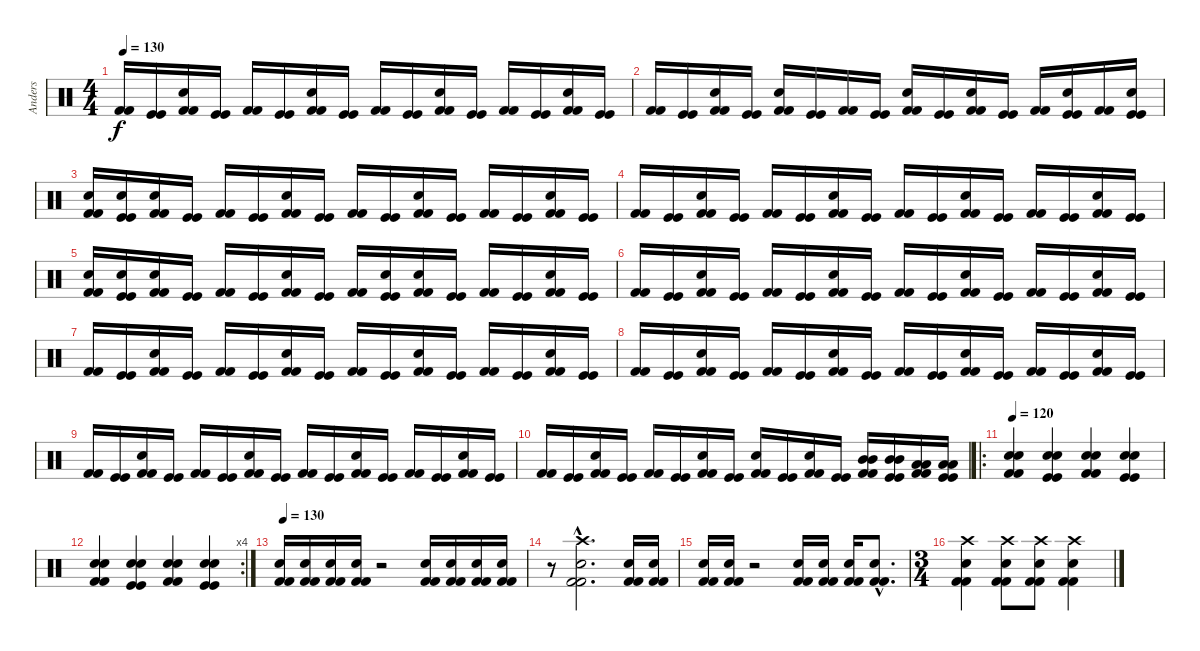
\track ("Anders" "Anders") {instrument percussion}
\staff {score}
\articulation defaults
\ts (4 4)
\tempo 130
\clef neutral
\ks c
("Kick (hit) 2" "Kick (hit) 2").16{dy f} ("Kick (hit)" "Kick (hit)").16 ("Snare (hit) 2" "Kick (hit) 2" "Kick (hit) 2").16 ("Kick (hit)" "Kick (hit)").16 ("Kick (hit) 2" "Kick (hit) 2").16 ("Kick (hit)" "Kick (hit)").16 ("Snare (hit) 2" "Kick (hit) 2" "Kick (hit) 2").16 ("Kick (hit)" "Kick (hit)").16 ("Kick (hit) 2" "Kick (hit) 2").16 ("Kick (hit)" "Kick (hit)").16 ("Snare (hit) 2" "Kick (hit) 2" "Kick (hit) 2").16 ("Kick (hit)" "Kick (hit)").16 ("Kick (hit) 2" "Kick (hit) 2").16 ("Kick (hit)" "Kick (hit)").16 ("Snare (hit) 2" "Kick (hit) 2" "Kick (hit) 2").16 ("Kick (hit)" "Kick (hit)").16 |
("Kick (hit) 2" "Kick (hit) 2").16 ("Kick (hit)" "Kick (hit)").16 ("Snare (hit) 2" "Kick (hit) 2" "Kick (hit) 2").16 ("Kick (hit)" "Kick (hit)").16 ("Snare (hit) 2" "Kick (hit) 2" "Kick (hit) 2").16 ("Kick (hit)" "Kick (hit)").16 ("Kick (hit) 2" "Kick (hit) 2").16 ("Kick (hit)" "Kick (hit)").16 ("Snare (hit) 2" "Kick (hit) 2" "Kick (hit) 2").16 ("Kick (hit)" "Kick (hit)").16 ("Snare (hit) 2" "Kick (hit) 2" "Kick (hit) 2").16 ("Kick (hit)" "Kick (hit)").16 ("Kick (hit) 2" "Kick (hit) 2").16 ("Snare (hit) 2" "Kick (hit)" "Kick (hit)").16 ("Kick (hit) 2" "Kick (hit) 2").16 ("Snare (hit) 2" "Kick (hit)" "Kick (hit)").16 |
("Snare (hit) 2" "Kick (hit) 2" "Kick (hit) 2").16 ("Snare (hit) 2" "Kick (hit)" "Kick (hit)").16 ("Snare (hit) 2" "Kick (hit) 2" "Kick (hit) 2").16 ("Kick (hit)" "Kick (hit)").16 ("Kick (hit) 2" "Kick (hit) 2").16 ("Kick (hit)" "Kick (hit)").16 ("Snare (hit) 2" "Kick (hit) 2" "Kick (hit) 2").16 ("Kick (hit)" "Kick (hit)").16 ("Kick (hit) 2" "Kick (hit) 2").16 ("Kick (hit)" "Kick (hit)").16 ("Snare (hit) 2" "Kick (hit) 2" "Kick (hit) 2").16 ("Kick (hit)" "Kick (hit)").16 ("Kick (hit) 2" "Kick (hit) 2").16 ("Kick (hit)" "Kick (hit)").16 ("Snare (hit) 2" "Kick (hit) 2" "Kick (hit) 2").16 ("Kick (hit)" "Kick (hit)").16 |
("Kick (hit) 2" "Kick (hit) 2").16 ("Kick (hit)" "Kick (hit)").16 ("Snare (hit) 2" "Kick (hit) 2" "Kick (hit) 2").16 ("Kick (hit)" "Kick (hit)").16 ("Kick (hit) 2" "Kick (hit) 2").16 ("Kick (hit)" "Kick (hit)").16 ("Snare (hit) 2" "Kick (hit) 2" "Kick (hit) 2").16 ("Kick (hit)" "Kick (hit)").16 ("Kick (hit) 2" "Kick (hit) 2").16 ("Kick (hit)" "Kick (hit)").16 ("Snare (hit) 2" "Kick (hit) 2" "Kick (hit) 2").16 ("Kick (hit)" "Kick (hit)").16 ("Kick (hit) 2" "Kick (hit) 2").16 ("Kick (hit)" "Kick (hit)").16 ("Snare (hit) 2" "Kick (hit) 2" "Kick (hit) 2").16 ("Kick (hit)" "Kick (hit)").16 |
("Snare (hit) 2" "Kick (hit) 2" "Kick (hit) 2").16 ("Snare (hit) 2" "Kick (hit)" "Kick (hit)").16 ("Snare (hit) 2" "Kick (hit) 2" "Kick (hit) 2").16 ("Kick (hit)" "Kick (hit)").16 ("Kick (hit) 2" "Kick (hit) 2").16 ("Kick (hit)" "Kick (hit)").16 ("Snare (hit) 2" "Kick (hit) 2" "Kick (hit) 2").16 ("Kick (hit)" "Kick (hit)").16 ("Kick (hit) 2" "Kick (hit) 2").16 ("Snare (hit) 2" "Kick (hit)" "Kick (hit)").16 ("Snare (hit) 2" "Kick (hit) 2" "Kick (hit) 2").16 ("Kick (hit)" "Kick (hit)").16 ("Kick (hit) 2" "Kick (hit) 2").16 ("Kick (hit)" "Kick (hit)").16 ("Snare (hit) 2" "Kick (hit) 2" "Kick (hit) 2").16 ("Kick (hit)" "Kick (hit)").16 |
("Kick (hit) 2" "Kick (hit) 2").16 ("Kick (hit)" "Kick (hit)").16 ("Snare (hit) 2" "Kick (hit) 2" "Kick (hit) 2").16 ("Kick (hit)" "Kick (hit)").16 ("Kick (hit) 2" "Kick (hit) 2").16 ("Kick (hit)" "Kick (hit)").16 ("Snare (hit) 2" "Kick (hit) 2" "Kick (hit) 2").16 ("Kick (hit)" "Kick (hit)").16 ("Kick (hit) 2" "Kick (hit) 2").16 ("Kick (hit)" "Kick (hit)").16 ("Snare (hit) 2" "Kick (hit) 2" "Kick (hit) 2").16 ("Kick (hit)" "Kick (hit)").16 ("Kick (hit) 2" "Kick (hit) 2").16 ("Kick (hit)" "Kick (hit)").16 ("Snare (hit) 2" "Kick (hit) 2" "Kick (hit) 2").16 ("Kick (hit)" "Kick (hit)").16 |
("Kick (hit) 2" "Kick (hit) 2").16 ("Kick (hit)" "Kick (hit)").16 ("Snare (hit) 2" "Kick (hit) 2" "Kick (hit) 2").16 ("Kick (hit)" "Kick (hit)").16 ("Kick (hit) 2" "Kick (hit) 2").16 ("Kick (hit)" "Kick (hit)").16 ("Snare (hit) 2" "Kick (hit) 2" "Kick (hit) 2").16 ("Kick (hit)" "Kick (hit)").16 ("Kick (hit) 2" "Kick (hit) 2").16 ("Kick (hit)" "Kick (hit)").16 ("Snare (hit) 2" "Kick (hit) 2" "Kick (hit) 2").16 ("Kick (hit)" "Kick (hit)").16 ("Kick (hit) 2" "Kick (hit) 2").16 ("Kick (hit)" "Kick (hit)").16 ("Snare (hit) 2" "Kick (hit) 2" "Kick (hit) 2").16 ("Kick (hit)" "Kick (hit)").16 |
("Kick (hit) 2" "Kick (hit) 2").16 ("Kick (hit)" "Kick (hit)").16 ("Snare (hit) 2" "Kick (hit) 2" "Kick (hit) 2").16 ("Kick (hit)" "Kick (hit)").16 ("Kick (hit) 2" "Kick (hit) 2").16 ("Kick (hit)" "Kick (hit)").16 ("Snare (hit) 2" "Kick (hit) 2" "Kick (hit) 2").16 ("Kick (hit)" "Kick (hit)").16 ("Kick (hit) 2" "Kick (hit) 2").16 ("Kick (hit)" "Kick (hit)").16 ("Snare (hit) 2" "Kick (hit) 2" "Kick (hit) 2").16 ("Kick (hit)" "Kick (hit)").16 ("Kick (hit) 2" "Kick (hit) 2").16 ("Kick (hit)" "Kick (hit)").16 ("Snare (hit) 2" "Kick (hit) 2" "Kick (hit) 2").16 ("Kick (hit)" "Kick (hit)").16 |
("Kick (hit) 2" "Kick (hit) 2").16 ("Kick (hit)" "Kick (hit)").16 ("Snare (hit) 2" "Kick (hit) 2" "Kick (hit) 2").16 ("Kick (hit)" "Kick (hit)").16 ("Kick (hit) 2" "Kick (hit) 2").16 ("Kick (hit)" "Kick (hit)").16 ("Snare (hit) 2" "Kick (hit) 2" "Kick (hit) 2").16 ("Kick (hit)" "Kick (hit)").16 ("Kick (hit) 2" "Kick (hit) 2").16 ("Kick (hit)" "Kick (hit)").16 ("Snare (hit) 2" "Kick (hit) 2" "Kick (hit) 2").16 ("Kick (hit)" "Kick (hit)").16 ("Kick (hit) 2" "Kick (hit) 2").16 ("Kick (hit)" "Kick (hit)").16 ("Snare (hit) 2" "Kick (hit) 2" "Kick (hit) 2").16 ("Kick (hit)" "Kick (hit)").16 |
("Kick (hit) 2" "Kick (hit) 2").16 ("Kick (hit)" "Kick (hit)").16 ("Snare (hit) 2" "Kick (hit) 2" "Kick (hit) 2").16 ("Kick (hit)" "Kick (hit)").16 ("Kick (hit) 2" "Kick (hit) 2").16 ("Kick (hit)" "Kick (hit)").16 ("Snare (hit) 2" "Kick (hit) 2" "Kick (hit) 2").16 ("Kick (hit)" "Kick (hit)").16 ("Snare (hit) 2" "Kick (hit) 2" "Kick (hit) 2").16 ("Kick (hit)" "Kick (hit)").16 ("Snare (hit) 2" "Kick (hit) 2" "Kick (hit) 2").16 ("Kick (hit)" "Kick (hit)").16 ("Mid Tom (hit)" "Mid Tom (hit)" "Kick (hit) 2" "Kick (hit) 2").16 ("Mid Tom (hit)" "Mid Tom (hit)" "Kick (hit)" "Kick (hit)").16 ("Low Tom (hit)" "Low Tom (hit)" "Kick (hit) 2" "Kick (hit) 2").16 ("Low Tom (hit)" "Low Tom (hit)" "Kick (hit)" "Kick (hit)").16 |
\ro
\tempo 120
("Snare (hit) 2" "Snare (hit) 2" "Kick (hit) 2" "Kick (hit) 2").4 ("Snare (hit) 2" "Snare (hit) 2" "Kick (hit)" "Kick (hit)").4 ("Snare (hit) 2" "Snare (hit) 2" "Kick (hit) 2" "Kick (hit) 2").4 ("Snare (hit) 2" "Snare (hit) 2" "Kick (hit)" "Kick (hit)").4 |
\rc 4
("Snare (hit) 2" "Snare (hit) 2" "Kick (hit) 2" "Kick (hit) 2").4 ("Snare (hit) 2" "Snare (hit) 2" "Kick (hit)" "Kick (hit)").4 ("Snare (hit) 2" "Snare (hit) 2" "Kick (hit) 2" "Kick (hit) 2").4 ("Snare (hit) 2" "Snare (hit) 2" "Kick (hit)" "Kick (hit)").4 |
\tempo 130
("Snare (hit) 2" "Kick (hit) 2" "Kick (hit) 2").16 ("Snare (hit) 2" "Kick (hit) 2" "Kick (hit) 2").16 ("Snare (hit) 2" "Kick (hit) 2" "Kick (hit) 2").16 ("Snare (hit) 2" "Kick (hit) 2" "Kick (hit) 2").16 r.2 ("Snare (hit) 2" "Kick (hit) 2" "Kick (hit) 2").16 ("Snare (hit) 2" "Kick (hit) 2" "Kick (hit) 2").16 ("Snare (hit) 2" "Kick (hit) 2" "Kick (hit) 2").16 ("Snare (hit) 2" "Kick (hit) 2" "Kick (hit) 2").16 |
r.8 ("Crash high (hit)"{hac} "Snare (hit) 2"{hac} "Kick (hit) 2"{hac} "Kick (hit) 2"{hac}).2{d} ("Snare (hit) 2" "Kick (hit) 2" "Kick (hit) 2").16 ("Snare (hit) 2" "Kick (hit) 2" "Kick (hit) 2").16 |
("Snare (hit) 2" "Kick (hit) 2" "Kick (hit) 2").16 ("Snare (hit) 2" "Kick (hit) 2" "Kick (hit) 2").16 r.2 ("Snare (hit) 2" "Kick (hit) 2" "Kick (hit) 2").16 ("Snare (hit) 2" "Kick (hit) 2" "Kick (hit) 2").16 ("Snare (hit) 2" "Kick (hit) 2" "Kick (hit) 2").16 ("Snare (hit) 2"{hac} "Kick (hit) 2"{hac} "Kick (hit) 2"{hac}).8{d} |
\ts (3 4)
("Crash high (hit)" "Snare (hit) 2" "Kick (hit) 2" "Kick (hit) 2").4 ("Crash high (hit)" "Snare (hit) 2" "Kick (hit) 2" "Kick (hit) 2").8 ("Crash high (hit)" "Snare (hit) 2" "Kick (hit) 2" "Kick (hit) 2").8 ("Crash high (hit)" "Snare (hit) 2" "Kick (hit) 2" "Kick (hit) 2").4
